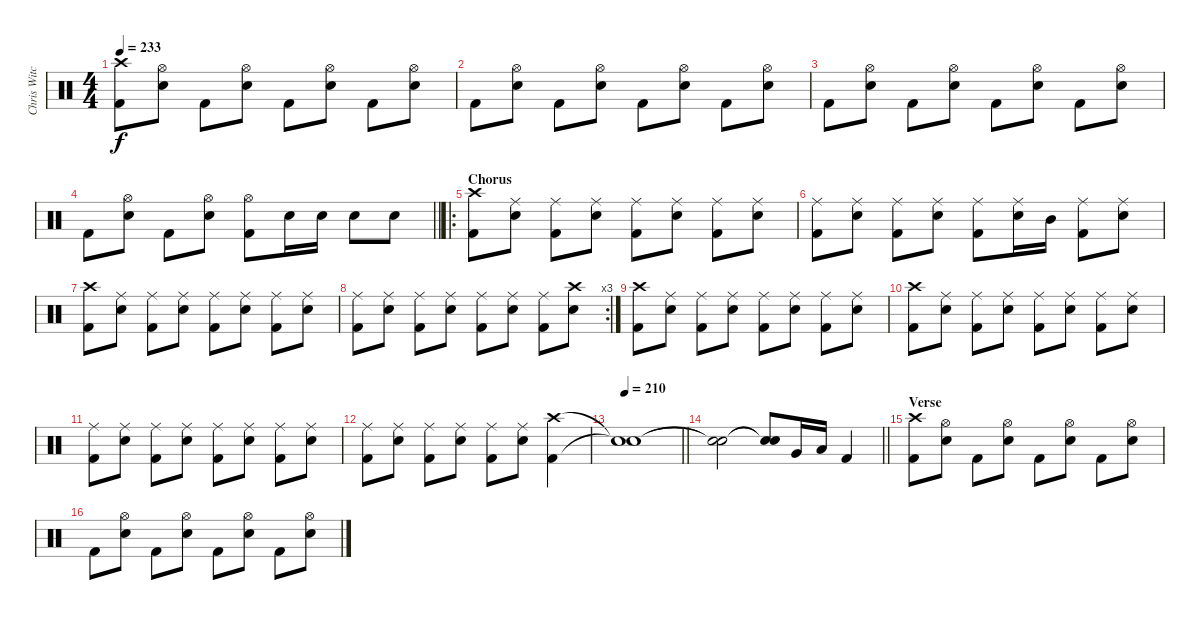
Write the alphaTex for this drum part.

\track ("Chris Witchunter" "Chris Witc") {instrument percussion}
\staff {score}
\articulation defaults
\ts (4 4)
\tempo 233
\clef neutral
\ks c
("Crash high (hit)" "Kick (hit) 2").8{dy f} ("Hi-Hat (open)" "Snare (hit) 2").8 "Kick (hit) 2".8 ("Hi-Hat (open)" "Snare (hit) 2").8 "Kick (hit) 2".8 ("Hi-Hat (open)" "Snare (hit) 2").8 "Kick (hit) 2".8 ("Hi-Hat (open)" "Snare (hit) 2").8 |
"Kick (hit) 2".8 ("Hi-Hat (open)" "Snare (hit) 2").8 "Kick (hit) 2".8 ("Hi-Hat (open)" "Snare (hit) 2").8 "Kick (hit) 2".8 ("Hi-Hat (open)" "Snare (hit) 2").8 "Kick (hit) 2".8 ("Hi-Hat (open)" "Snare (hit) 2").8 |
"Kick (hit) 2".8 ("Hi-Hat (open)" "Snare (hit) 2").8 "Kick (hit) 2".8 ("Hi-Hat (open)" "Snare (hit) 2").8 "Kick (hit) 2".8 ("Hi-Hat (open)" "Snare (hit) 2").8 "Kick (hit) 2".8 ("Hi-Hat (open)" "Snare (hit) 2").8 |
\barLineRight lightlight "Kick (hit) 2".8
("Hi-Hat (open)" "Snare (hit) 2").8 "Kick (hit) 2".8 ("Hi-Hat (open)" "Snare (hit) 2").8 ("Hi-Hat (open)" "Kick (hit) 2").8 "Snare (hit) 2".16 "Snare (hit) 2".16 "Snare (hit) 2".8 "Snare (hit) 2".8 |
\ro
\section ("" "Chorus")
("Crash high (hit)" "Kick (hit) 2").8 ("Ride (middle)" "Snare (hit) 2").8 ("Ride (middle)" "Kick (hit) 2").8 ("Ride (middle)" "Snare (hit) 2").8 ("Ride (middle)" "Kick (hit) 2").8 ("Ride (middle)" "Snare (hit) 2").8 ("Ride (middle)" "Kick (hit) 2").8 ("Ride (middle)" "Snare (hit) 2").8 |
("Ride (middle)" "Kick (hit) 2").8 ("Ride (middle)" "Snare (hit) 2").8 ("Ride (middle)" "Kick (hit) 2").8 ("Ride (middle)" "Snare (hit) 2").8 ("Ride (middle)" "Kick (hit) 2").8 ("Ride (middle)" "Snare (hit) 2").16 "Mid Tom (hit)".16 ("Ride (middle)" "Kick (hit) 2").8 ("Ride (middle)" "Snare (hit) 2").8 |
("Crash high (hit)" "Kick (hit) 2").8 ("Ride (middle)" "Snare (hit) 2").8 ("Ride (middle)" "Kick (hit) 2").8 ("Ride (middle)" "Snare (hit) 2").8 ("Ride (middle)" "Kick (hit) 2").8 ("Ride (middle)" "Snare (hit) 2").8 ("Ride (middle)" "Kick (hit) 2").8 ("Ride (middle)" "Snare (hit) 2").8 |
\rc 3
("Ride (middle)" "Kick (hit) 2").8 ("Ride (middle)" "Snare (hit) 2").8 ("Ride (middle)" "Kick (hit) 2").8 ("Ride (middle)" "Snare (hit) 2").8 ("Ride (middle)" "Kick (hit) 2").8 ("Ride (middle)" "Snare (hit) 2").8 ("Ride (middle)" "Kick (hit) 2").8 ("Crash high (hit)" "Snare (hit) 2").8 |
("Crash high (hit)" "Kick (hit) 2").8 ("Ride (middle)" "Snare (hit) 2").8 ("Ride (middle)" "Kick (hit) 2").8 ("Ride (middle)" "Snare (hit) 2").8 ("Ride (middle)" "Kick (hit) 2").8 ("Ride (middle)" "Snare (hit) 2").8 ("Ride (middle)" "Kick (hit) 2").8 ("Ride (middle)" "Snare (hit) 2").8 |
("Crash high (hit)" "Kick (hit) 2").8 ("Ride (middle)" "Snare (hit) 2").8 ("Ride (middle)" "Kick (hit) 2").8 ("Ride (middle)" "Snare (hit) 2").8 ("Ride (middle)" "Kick (hit) 2").8 ("Ride (middle)" "Snare (hit) 2").8 ("Ride (middle)" "Kick (hit) 2").8 ("Ride (middle)" "Snare (hit) 2").8 |
("Ride (middle)" "Kick (hit) 2").8 ("Ride (middle)" "Snare (hit) 2").8 ("Ride (middle)" "Kick (hit) 2").8 ("Ride (middle)" "Snare (hit) 2").8 ("Ride (middle)" "Kick (hit) 2").8 ("Ride (middle)" "Snare (hit) 2").8 ("Ride (middle)" "Kick (hit) 2").8 ("Ride (middle)" "Snare (hit) 2").8 |
("Ride (middle)" "Kick (hit) 2").8 ("Ride (middle)" "Snare (hit) 2").8 ("Ride (middle)" "Kick (hit) 2").8 ("Ride (middle)" "Snare (hit) 2").8 ("Ride (middle)" "Kick (hit) 2").8 ("Ride (middle)" "Snare (hit) 2").8 ("Crash high (hit)" "Kick (hit) 2").4 |
\tempo 210
\barLineRight lightlight
("Snare (hit)"{t} "Snare (hit)"{t}).1 |
\barLineRight lightlight
("Snare (hit)"{t} "Snare (hit)"{t}).2 ("Snare (hit)"{t} "Snare (hit)"{t}).8 "Very Low Tom (hit)".16 "Low Floor Tom (hit)".16 "Kick (hit) 2".4 |
\section ("" "Verse")
("Crash high (hit)" "Kick (hit) 2").8 ("Hi-Hat (open)" "Snare (hit) 2").8 "Kick (hit) 2".8 ("Hi-Hat (open)" "Snare (hit) 2").8 "Kick (hit) 2".8 ("Hi-Hat (open)" "Snare (hit) 2").8 "Kick (hit) 2".8 ("Hi-Hat (open)" "Snare (hit) 2").8 |
"Kick (hit) 2".8 ("Hi-Hat (open)" "Snare (hit) 2").8 "Kick (hit) 2".8 ("Hi-Hat (open)" "Snare (hit) 2").8 "Kick (hit) 2".8 ("Hi-Hat (open)" "Snare (hit) 2").8 "Kick (hit) 2".8 ("Hi-Hat (open)" "Snare (hit) 2").8
